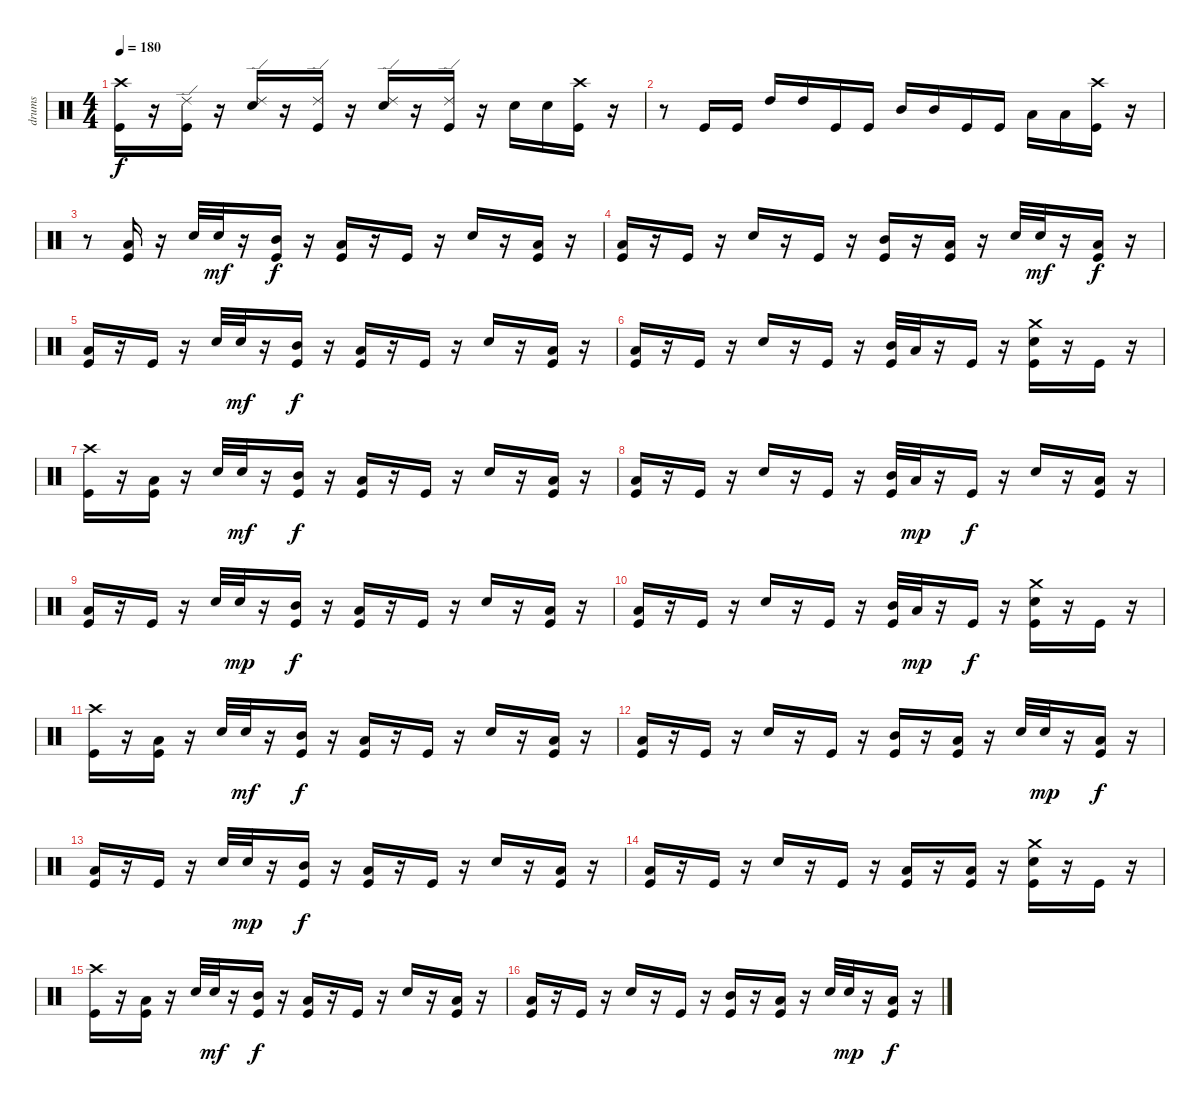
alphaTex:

\track ("drums" "drums") {instrument percussion}
\staff {score}
\articulation defaults
\ts (4 4)
\tempo 180
\clef neutral
\ks c
("Crash high (hit)" "Kick (hit)").16{dy f} r.16 ("Ride (edge) 2" "Kick (hit)").16 r.16 ("Ride (edge) 2" "Snare (hit) 2").16 r.16 ("Ride (edge) 2" "Kick (hit)").16 r.16 ("Ride (edge) 2" "Snare (hit) 2").16 r.16 ("Ride (edge) 2" "Kick (hit)").16 r.16 "Snare (hit) 2".16 "Snare (hit) 2".16 ("Crash high (hit)" "Kick (hit)").16 r.16 |
r.8 "Kick (hit)".16 "Kick (hit)".16 "High Tom (hit)".16 "High Tom (hit)".16 "Kick (hit)".16 "Kick (hit)".16 "Mid Tom (hit)".16 "Mid Tom (hit)".16 "Kick (hit)".16 "Kick (hit)".16 "Low Tom (hit)".16 "Low Tom (hit)".16 ("Kick (hit)" "Crash high (hit)").16 r.16 |
r.8 ("Low Tom (hit)" "Kick (hit)").16 r.16 "Snare (hit) 2".32 "Snare (hit) 2".32{dy mf} r.16 ("Mid Tom (hit)" "Kick (hit)").16{dy f} r.16 ("Low Tom (hit)" "Kick (hit)").16 r.16 "Kick (hit)".16 r.16 "Snare (hit) 2".16 r.16 ("Low Tom (hit)" "Kick (hit)").16 r.16 |
("Low Tom (hit)" "Kick (hit)").16 r.16 "Kick (hit)".16 r.16 "Snare (hit) 2".16 r.16 "Kick (hit)".16 r.16 ("Mid Tom (hit)" "Kick (hit)").16 r.16 ("Low Tom (hit)" "Kick (hit)").16 r.16 "Snare (hit) 2".32 "Snare (hit) 2".32{dy mf} r.16 ("Low Tom (hit)" "Kick (hit)").16{dy f} r.16 |
("Low Tom (hit)" "Kick (hit)").16 r.16 "Kick (hit)".16 r.16 "Snare (hit) 2".32 "Snare (hit) 2".32{dy mf} r.16 ("Mid Tom (hit)" "Kick (hit)").16{dy f} r.16 ("Low Tom (hit)" "Kick (hit)").16 r.16 "Kick (hit)".16 r.16 "Snare (hit) 2".16 r.16 ("Low Tom (hit)" "Kick (hit)").16 r.16 |
("Low Tom (hit)" "Kick (hit)").16 r.16 "Kick (hit)".16 r.16 "Snare (hit) 2".16 r.16 "Kick (hit)".16 r.16 ("Mid Tom (hit)" "Kick (hit)").32 "Low Tom (hit)".32 r.16 "Kick (hit)".16 r.16 ("Snare (hit) 2" "Kick (hit)" "Crash medium (hit)").16 r.16 "Kick (hit)".16 r.16 |
("Crash high (hit)" "Kick (hit)").16 r.16 ("Low Tom (hit)" "Kick (hit)").16 r.16 "Snare (hit) 2".32 "Snare (hit) 2".32{dy mf} r.16 ("Mid Tom (hit)" "Kick (hit)").16{dy f} r.16 ("Low Tom (hit)" "Kick (hit)").16 r.16 "Kick (hit)".16 r.16 "Snare (hit) 2".16 r.16 ("Low Tom (hit)" "Kick (hit)").16 r.16 |
("Low Tom (hit)" "Kick (hit)").16 r.16 "Kick (hit)".16 r.16 "Snare (hit) 2".16 r.16 "Kick (hit)".16 r.16 ("Mid Tom (hit)" "Kick (hit)").32 "Low Tom (hit)".32{dy mp} r.16 "Kick (hit)".16{dy f} r.16 "Snare (hit) 2".16 r.16 ("Low Tom (hit)" "Kick (hit)").16 r.16 |
("Low Tom (hit)" "Kick (hit)").16 r.16 "Kick (hit)".16 r.16 "Snare (hit) 2".32 "Snare (hit) 2".32{dy mp} r.16 ("Mid Tom (hit)" "Kick (hit)").16{dy f} r.16 ("Low Tom (hit)" "Kick (hit)").16 r.16 "Kick (hit)".16 r.16 "Snare (hit) 2".16 r.16 ("Low Tom (hit)" "Kick (hit)").16 r.16 |
("Low Tom (hit)" "Kick (hit)").16 r.16 "Kick (hit)".16 r.16 "Snare (hit) 2".16 r.16 "Kick (hit)".16 r.16 ("Mid Tom (hit)" "Kick (hit)").32 "Low Tom (hit)".32{dy mp} r.16 "Kick (hit)".16{dy f} r.16 ("Snare (hit) 2" "Kick (hit)" "Crash medium (hit)").16 r.16 "Kick (hit)".16 r.16 |
("Crash high (hit)" "Kick (hit)").16 r.16 ("Low Tom (hit)" "Kick (hit)").16 r.16 "Snare (hit) 2".32 "Snare (hit) 2".32{dy mf} r.16 ("Mid Tom (hit)" "Kick (hit)").16{dy f} r.16 ("Low Tom (hit)" "Kick (hit)").16 r.16 "Kick (hit)".16 r.16 "Snare (hit) 2".16 r.16 ("Low Tom (hit)" "Kick (hit)").16 r.16 |
("Low Tom (hit)" "Kick (hit)").16 r.16 "Kick (hit)".16 r.16 "Snare (hit) 2".16 r.16 "Kick (hit)".16 r.16 ("Mid Tom (hit)" "Kick (hit)").16 r.16 ("Low Tom (hit)" "Kick (hit)").16 r.16 "Snare (hit) 2".32 "Snare (hit) 2".32{dy mp} r.16 ("Low Tom (hit)" "Kick (hit)").16{dy f} r.16 |
("Low Tom (hit)" "Kick (hit)").16 r.16 "Kick (hit)".16 r.16 "Snare (hit) 2".32 "Snare (hit) 2".32{dy mp} r.16 ("Mid Tom (hit)" "Kick (hit)").16{dy f} r.16 ("Low Tom (hit)" "Kick (hit)").16 r.16 "Kick (hit)".16 r.16 "Snare (hit) 2".16 r.16 ("Low Tom (hit)" "Kick (hit)").16 r.16 |
("Low Tom (hit)" "Kick (hit)").16 r.16 "Kick (hit)".16 r.16 "Snare (hit) 2".16 r.16 "Kick (hit)".16 r.16 ("Low Tom (hit)" "Kick (hit)").16 r.16 ("Low Tom (hit)" "Kick (hit)").16 r.16 ("Snare (hit) 2" "Kick (hit)" "Crash medium (hit)").16 r.16 "Kick (hit)".16 r.16 |
("Crash high (hit)" "Kick (hit)").16 r.16 ("Low Tom (hit)" "Kick (hit)").16 r.16 "Snare (hit) 2".32 "Snare (hit) 2".32{dy mf} r.16 ("Mid Tom (hit)" "Kick (hit)").16{dy f} r.16 ("Low Tom (hit)" "Kick (hit)").16 r.16 "Kick (hit)".16 r.16 "Snare (hit) 2".16 r.16 ("Low Tom (hit)" "Kick (hit)").16 r.16 |
("Low Tom (hit)" "Kick (hit)").16 r.16 "Kick (hit)".16 r.16 "Snare (hit) 2".16 r.16 "Kick (hit)".16 r.16 ("Mid Tom (hit)" "Kick (hit)").16 r.16 ("Low Tom (hit)" "Kick (hit)").16 r.16 "Snare (hit) 2".32 "Snare (hit) 2".32{dy mp} r.16 ("Low Tom (hit)" "Kick (hit)").16{dy f} r.16
